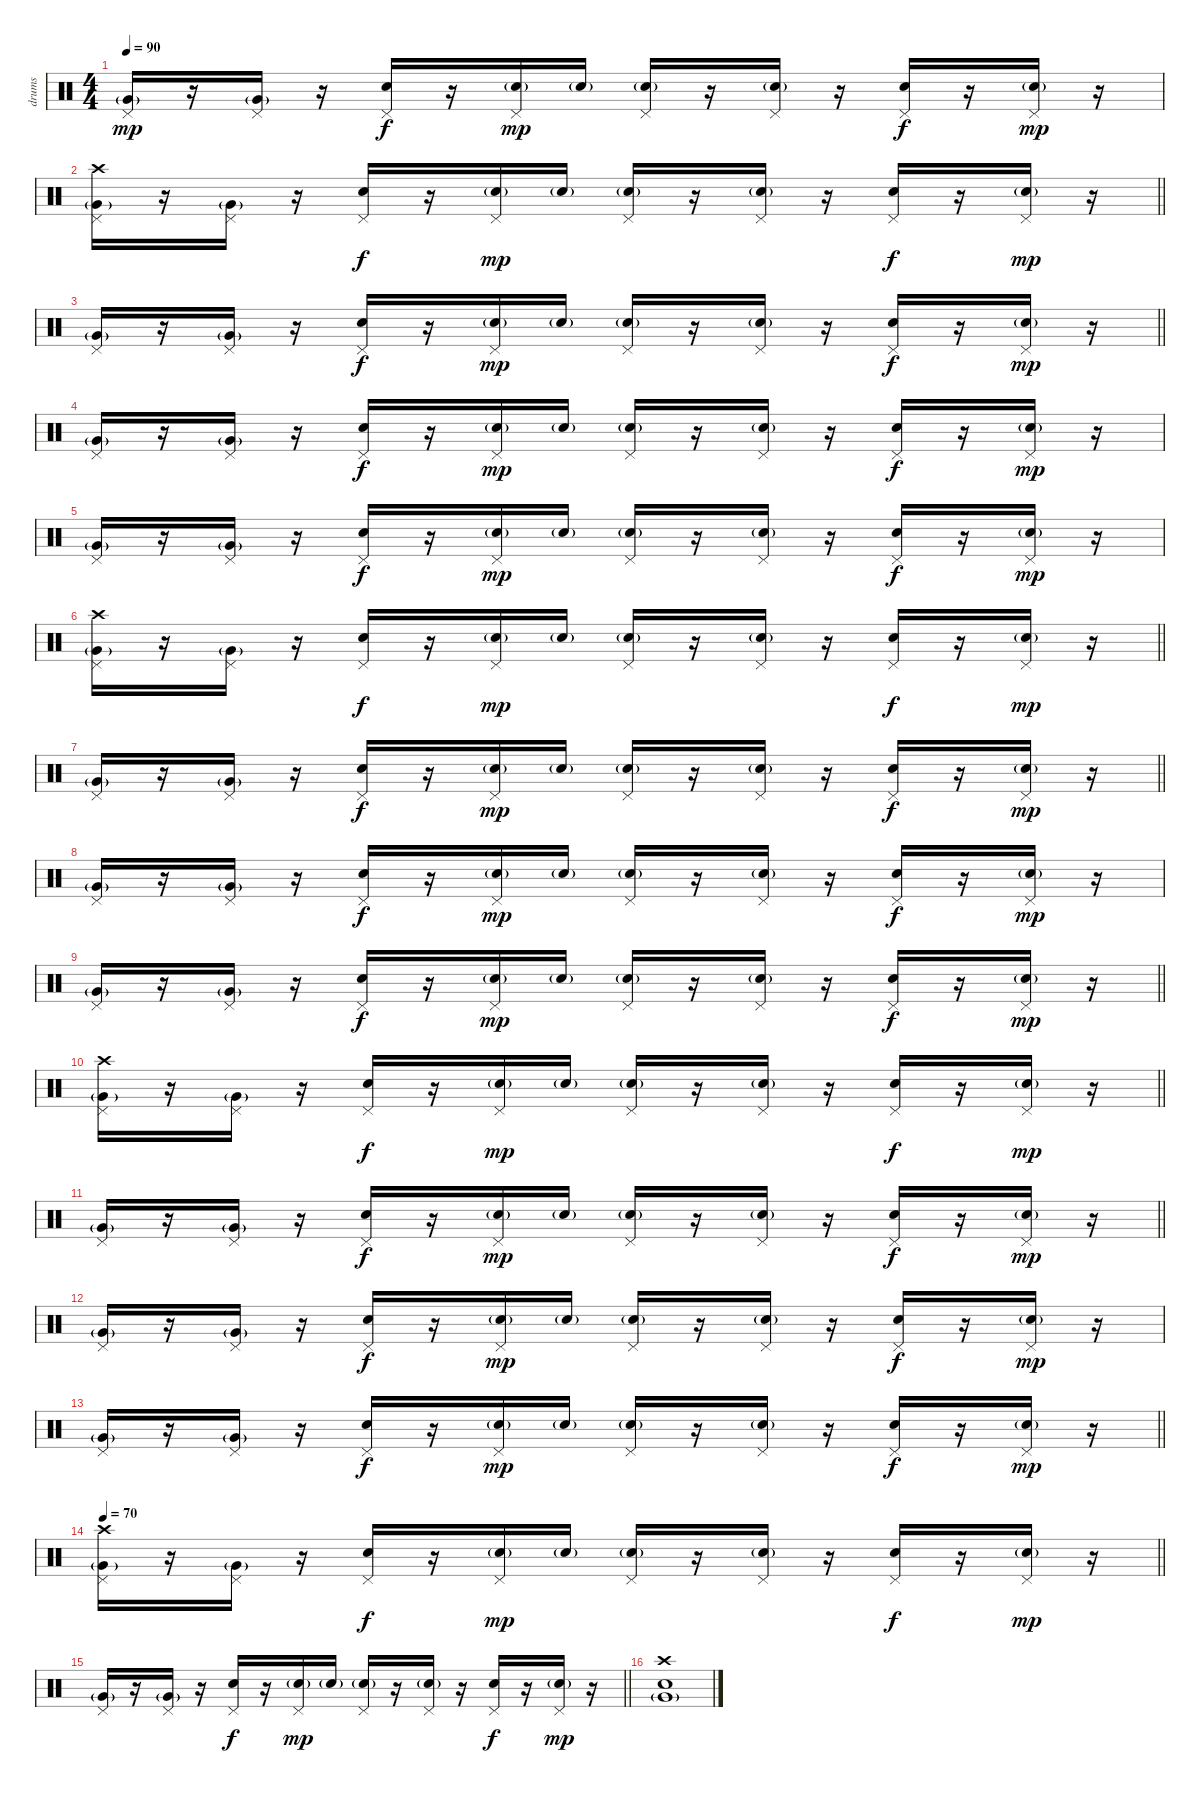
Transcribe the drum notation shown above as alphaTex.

\track ("drums" "drums") {instrument percussion}
\staff {score}
\articulation defaults
\ts (4 4)
\tempo 90
\clef neutral
\ks c
("Very Low Tom (hit)"{g} "Pedal Hi-Hat (hit)").16{dy mp} r.16 ("Very Low Tom (hit)"{g} "Pedal Hi-Hat (hit)").16 r.16 ("Electric Snare (hit)" "Pedal Hi-Hat (hit)").16{dy f} r.16 ("Electric Snare (hit)"{g} "Pedal Hi-Hat (hit)").16{dy mp} "Electric Snare (hit)"{g}.16 ("Electric Snare (hit)"{g} "Pedal Hi-Hat (hit)").16 r.16 ("Electric Snare (hit)"{g} "Pedal Hi-Hat (hit)").16 r.16 ("Electric Snare (hit)" "Pedal Hi-Hat (hit)").16{dy f} r.16 ("Electric Snare (hit)"{g} "Pedal Hi-Hat (hit)").16{dy mp} r.16 |
\barLineRight lightlight
("Very Low Tom (hit)"{g} "Pedal Hi-Hat (hit)" "Crash high (hit)").16 r.16 ("Very Low Tom (hit)"{g} "Pedal Hi-Hat (hit)").16 r.16 ("Electric Snare (hit)" "Pedal Hi-Hat (hit)").16{dy f} r.16 ("Electric Snare (hit)"{g} "Pedal Hi-Hat (hit)").16{dy mp} "Electric Snare (hit)"{g}.16 ("Electric Snare (hit)"{g} "Pedal Hi-Hat (hit)").16 r.16 ("Electric Snare (hit)"{g} "Pedal Hi-Hat (hit)").16 r.16 ("Electric Snare (hit)" "Pedal Hi-Hat (hit)").16{dy f} r.16 ("Electric Snare (hit)"{g} "Pedal Hi-Hat (hit)").16{dy mp} r.16 |
\barLineRight lightlight
("Very Low Tom (hit)"{g} "Pedal Hi-Hat (hit)").16 r.16 ("Very Low Tom (hit)"{g} "Pedal Hi-Hat (hit)").16 r.16 ("Electric Snare (hit)" "Pedal Hi-Hat (hit)").16{dy f} r.16 ("Electric Snare (hit)"{g} "Pedal Hi-Hat (hit)").16{dy mp} "Electric Snare (hit)"{g}.16 ("Electric Snare (hit)"{g} "Pedal Hi-Hat (hit)").16 r.16 ("Electric Snare (hit)"{g} "Pedal Hi-Hat (hit)").16 r.16 ("Electric Snare (hit)" "Pedal Hi-Hat (hit)").16{dy f} r.16 ("Electric Snare (hit)"{g} "Pedal Hi-Hat (hit)").16{dy mp} r.16 |
("Very Low Tom (hit)"{g} "Pedal Hi-Hat (hit)").16 r.16 ("Very Low Tom (hit)"{g} "Pedal Hi-Hat (hit)").16 r.16 ("Electric Snare (hit)" "Pedal Hi-Hat (hit)").16{dy f} r.16 ("Electric Snare (hit)"{g} "Pedal Hi-Hat (hit)").16{dy mp} "Electric Snare (hit)"{g}.16 ("Electric Snare (hit)"{g} "Pedal Hi-Hat (hit)").16 r.16 ("Electric Snare (hit)"{g} "Pedal Hi-Hat (hit)").16 r.16 ("Electric Snare (hit)" "Pedal Hi-Hat (hit)").16{dy f} r.16 ("Electric Snare (hit)"{g} "Pedal Hi-Hat (hit)").16{dy mp} r.16 |
("Very Low Tom (hit)"{g} "Pedal Hi-Hat (hit)").16 r.16 ("Very Low Tom (hit)"{g} "Pedal Hi-Hat (hit)").16 r.16 ("Electric Snare (hit)" "Pedal Hi-Hat (hit)").16{dy f} r.16 ("Electric Snare (hit)"{g} "Pedal Hi-Hat (hit)").16{dy mp} "Electric Snare (hit)"{g}.16 ("Electric Snare (hit)"{g} "Pedal Hi-Hat (hit)").16 r.16 ("Electric Snare (hit)"{g} "Pedal Hi-Hat (hit)").16 r.16 ("Electric Snare (hit)" "Pedal Hi-Hat (hit)").16{dy f} r.16 ("Electric Snare (hit)"{g} "Pedal Hi-Hat (hit)").16{dy mp} r.16 |
\barLineRight lightlight
("Very Low Tom (hit)"{g} "Pedal Hi-Hat (hit)" "Crash high (hit)").16 r.16 ("Very Low Tom (hit)"{g} "Pedal Hi-Hat (hit)").16 r.16 ("Electric Snare (hit)" "Pedal Hi-Hat (hit)").16{dy f} r.16 ("Electric Snare (hit)"{g} "Pedal Hi-Hat (hit)").16{dy mp} "Electric Snare (hit)"{g}.16 ("Electric Snare (hit)"{g} "Pedal Hi-Hat (hit)").16 r.16 ("Electric Snare (hit)"{g} "Pedal Hi-Hat (hit)").16 r.16 ("Electric Snare (hit)" "Pedal Hi-Hat (hit)").16{dy f} r.16 ("Electric Snare (hit)"{g} "Pedal Hi-Hat (hit)").16{dy mp} r.16 |
\barLineRight lightlight
("Very Low Tom (hit)"{g} "Pedal Hi-Hat (hit)").16 r.16 ("Very Low Tom (hit)"{g} "Pedal Hi-Hat (hit)").16 r.16 ("Electric Snare (hit)" "Pedal Hi-Hat (hit)").16{dy f} r.16 ("Electric Snare (hit)"{g} "Pedal Hi-Hat (hit)").16{dy mp} "Electric Snare (hit)"{g}.16 ("Electric Snare (hit)"{g} "Pedal Hi-Hat (hit)").16 r.16 ("Electric Snare (hit)"{g} "Pedal Hi-Hat (hit)").16 r.16 ("Electric Snare (hit)" "Pedal Hi-Hat (hit)").16{dy f} r.16 ("Electric Snare (hit)"{g} "Pedal Hi-Hat (hit)").16{dy mp} r.16 |
("Very Low Tom (hit)"{g} "Pedal Hi-Hat (hit)").16 r.16 ("Very Low Tom (hit)"{g} "Pedal Hi-Hat (hit)").16 r.16 ("Electric Snare (hit)" "Pedal Hi-Hat (hit)").16{dy f} r.16 ("Electric Snare (hit)"{g} "Pedal Hi-Hat (hit)").16{dy mp} "Electric Snare (hit)"{g}.16 ("Electric Snare (hit)"{g} "Pedal Hi-Hat (hit)").16 r.16 ("Electric Snare (hit)"{g} "Pedal Hi-Hat (hit)").16 r.16 ("Electric Snare (hit)" "Pedal Hi-Hat (hit)").16{dy f} r.16 ("Electric Snare (hit)"{g} "Pedal Hi-Hat (hit)").16{dy mp} r.16 |
\barLineRight lightlight
("Very Low Tom (hit)"{g} "Pedal Hi-Hat (hit)").16 r.16 ("Very Low Tom (hit)"{g} "Pedal Hi-Hat (hit)").16 r.16 ("Electric Snare (hit)" "Pedal Hi-Hat (hit)").16{dy f} r.16 ("Electric Snare (hit)"{g} "Pedal Hi-Hat (hit)").16{dy mp} "Electric Snare (hit)"{g}.16 ("Electric Snare (hit)"{g} "Pedal Hi-Hat (hit)").16 r.16 ("Electric Snare (hit)"{g} "Pedal Hi-Hat (hit)").16 r.16 ("Electric Snare (hit)" "Pedal Hi-Hat (hit)").16{dy f} r.16 ("Electric Snare (hit)"{g} "Pedal Hi-Hat (hit)").16{dy mp} r.16 |
\barLineRight lightlight
("Very Low Tom (hit)"{g} "Pedal Hi-Hat (hit)" "Crash high (hit)").16 r.16 ("Very Low Tom (hit)"{g} "Pedal Hi-Hat (hit)").16 r.16 ("Electric Snare (hit)" "Pedal Hi-Hat (hit)").16{dy f} r.16 ("Electric Snare (hit)"{g} "Pedal Hi-Hat (hit)").16{dy mp} "Electric Snare (hit)"{g}.16 ("Electric Snare (hit)"{g} "Pedal Hi-Hat (hit)").16 r.16 ("Electric Snare (hit)"{g} "Pedal Hi-Hat (hit)").16 r.16 ("Electric Snare (hit)" "Pedal Hi-Hat (hit)").16{dy f} r.16 ("Electric Snare (hit)"{g} "Pedal Hi-Hat (hit)").16{dy mp} r.16 |
\barLineRight lightlight
("Very Low Tom (hit)"{g} "Pedal Hi-Hat (hit)").16 r.16 ("Very Low Tom (hit)"{g} "Pedal Hi-Hat (hit)").16 r.16 ("Electric Snare (hit)" "Pedal Hi-Hat (hit)").16{dy f} r.16 ("Electric Snare (hit)"{g} "Pedal Hi-Hat (hit)").16{dy mp} "Electric Snare (hit)"{g}.16 ("Electric Snare (hit)"{g} "Pedal Hi-Hat (hit)").16 r.16 ("Electric Snare (hit)"{g} "Pedal Hi-Hat (hit)").16 r.16 ("Electric Snare (hit)" "Pedal Hi-Hat (hit)").16{dy f} r.16 ("Electric Snare (hit)"{g} "Pedal Hi-Hat (hit)").16{dy mp} r.16 |
("Very Low Tom (hit)"{g} "Pedal Hi-Hat (hit)").16 r.16 ("Very Low Tom (hit)"{g} "Pedal Hi-Hat (hit)").16 r.16 ("Electric Snare (hit)" "Pedal Hi-Hat (hit)").16{dy f} r.16 ("Electric Snare (hit)"{g} "Pedal Hi-Hat (hit)").16{dy mp} "Electric Snare (hit)"{g}.16 ("Electric Snare (hit)"{g} "Pedal Hi-Hat (hit)").16 r.16 ("Electric Snare (hit)"{g} "Pedal Hi-Hat (hit)").16 r.16 ("Electric Snare (hit)" "Pedal Hi-Hat (hit)").16{dy f} r.16 ("Electric Snare (hit)"{g} "Pedal Hi-Hat (hit)").16{dy mp} r.16 |
\barLineRight lightlight
("Very Low Tom (hit)"{g} "Pedal Hi-Hat (hit)").16 r.16 ("Very Low Tom (hit)"{g} "Pedal Hi-Hat (hit)").16 r.16 ("Electric Snare (hit)" "Pedal Hi-Hat (hit)").16{dy f} r.16 ("Electric Snare (hit)"{g} "Pedal Hi-Hat (hit)").16{dy mp} "Electric Snare (hit)"{g}.16 ("Electric Snare (hit)"{g} "Pedal Hi-Hat (hit)").16 r.16 ("Electric Snare (hit)"{g} "Pedal Hi-Hat (hit)").16 r.16 ("Electric Snare (hit)" "Pedal Hi-Hat (hit)").16{dy f} r.16 ("Electric Snare (hit)"{g} "Pedal Hi-Hat (hit)").16{dy mp} r.16 |
\tempo 70
\barLineRight lightlight
("Very Low Tom (hit)"{g} "Pedal Hi-Hat (hit)" "Crash high (hit)").16 r.16 ("Very Low Tom (hit)"{g} "Pedal Hi-Hat (hit)").16 r.16 ("Electric Snare (hit)" "Pedal Hi-Hat (hit)").16{dy f} r.16 ("Electric Snare (hit)"{g} "Pedal Hi-Hat (hit)").16{dy mp} "Electric Snare (hit)"{g}.16 ("Electric Snare (hit)"{g} "Pedal Hi-Hat (hit)").16 r.16 ("Electric Snare (hit)"{g} "Pedal Hi-Hat (hit)").16 r.16 ("Electric Snare (hit)" "Pedal Hi-Hat (hit)").16{dy f} r.16 ("Electric Snare (hit)"{g} "Pedal Hi-Hat (hit)").16{dy mp} r.16 |
\barLineRight lightlight
("Very Low Tom (hit)"{g} "Pedal Hi-Hat (hit)").16 r.16 ("Very Low Tom (hit)"{g} "Pedal Hi-Hat (hit)").16 r.16 ("Electric Snare (hit)" "Pedal Hi-Hat (hit)").16{dy f} r.16 ("Electric Snare (hit)"{g} "Pedal Hi-Hat (hit)").16{dy mp} "Electric Snare (hit)"{g}.16 ("Electric Snare (hit)"{g} "Pedal Hi-Hat (hit)").16 r.16 ("Electric Snare (hit)"{g} "Pedal Hi-Hat (hit)").16 r.16 ("Electric Snare (hit)" "Pedal Hi-Hat (hit)").16{dy f} r.16 ("Electric Snare (hit)"{g} "Pedal Hi-Hat (hit)").16{dy mp} r.16 |
("Very Low Tom (hit)"{g} "Electric Snare (hit)" "Crash high (hit)").1
